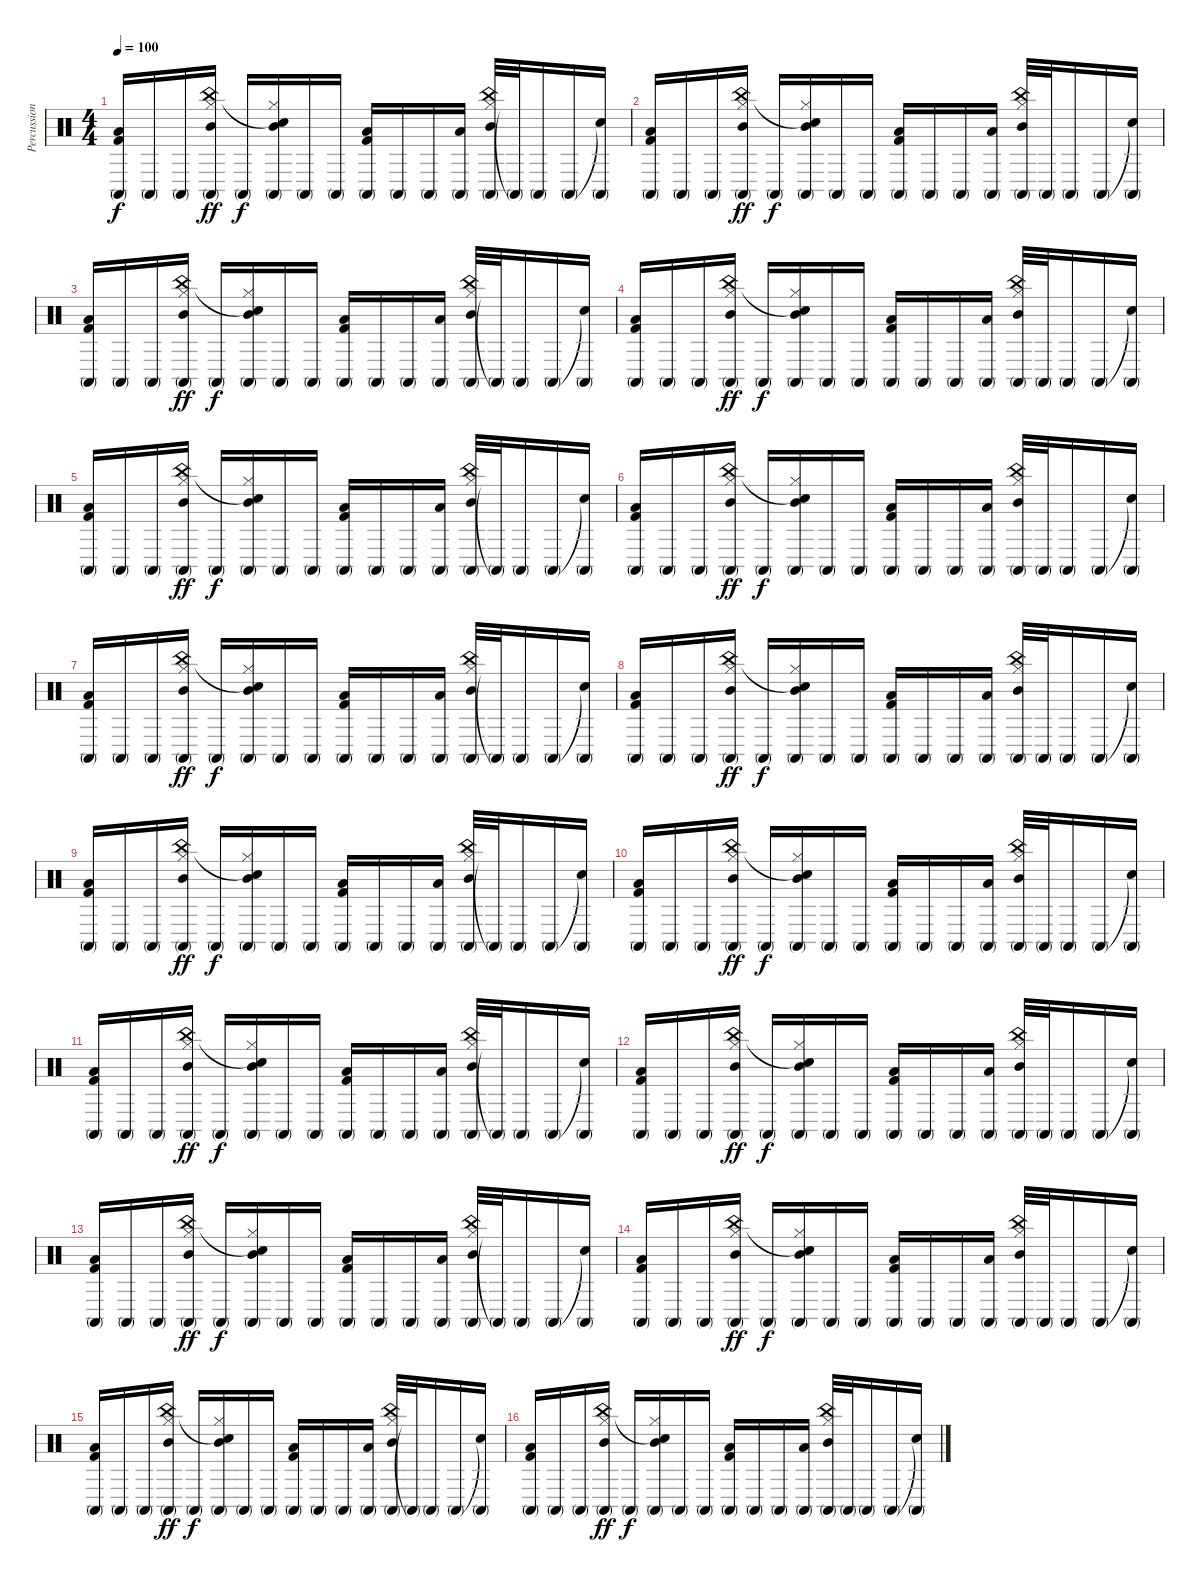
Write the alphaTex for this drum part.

\track ("Percussion" "Percussion") {instrument percussion}
\staff {score}
\articulation defaults
\ts (4 4)
\tempo 100
\clef neutral
\ks c
("Kick (hit) 2" "Low Tom (hit)" "Conga high (mute)").16{dy f} "Conga high (mute)".16 "Conga high (mute)".16 ("Hi-Hat (closed)" "China (hit)" "Mid Tom (hit)" "Conga high (mute)").16{dy ff} "Conga high (mute)".16{dy f} ("Hi-Hat (closed)" "Snare (hit)"{t} "Mid Tom (hit)" "Conga high (mute)").16 "Conga high (mute)".16 "Conga high (mute)".16 ("Kick (hit) 2" "Low Tom (hit)" "Conga high (mute)").16 "Conga high (mute)".16 "Conga high (mute)".16 ("Low Tom (hit)" "Conga high (mute)").16 ("Hi-Hat (closed)" "China (hit)" "Mid Tom (hit)" "Conga high (mute)").32 "Conga high (mute)"{t}.32 "Conga high (mute)".16 "Conga high (mute)".16 ("Snare (hit)"{t} "Conga high (mute)").16 |
("Kick (hit) 2" "Low Tom (hit)" "Conga high (mute)").16 "Conga high (mute)".16 "Conga high (mute)".16 ("Hi-Hat (closed)" "China (hit)" "Mid Tom (hit)" "Conga high (mute)").16{dy ff} "Conga high (mute)".16{dy f} ("Hi-Hat (closed)" "Snare (hit)"{t} "Mid Tom (hit)" "Conga high (mute)").16 "Conga high (mute)".16 "Conga high (mute)".16 ("Kick (hit) 2" "Low Tom (hit)" "Conga high (mute)").16 "Conga high (mute)".16 "Conga high (mute)".16 ("Low Tom (hit)" "Conga high (mute)").16 ("Hi-Hat (closed)" "China (hit)" "Mid Tom (hit)" "Conga high (mute)").32 "Conga high (mute)".32 "Conga high (mute)".16 "Conga high (mute)".16 ("Snare (hit)"{t} "Conga high (mute)").16 |
("Kick (hit) 2" "Low Tom (hit)" "Conga high (mute)").16 "Conga high (mute)".16 "Conga high (mute)".16 ("Hi-Hat (closed)" "China (hit)" "Mid Tom (hit)" "Conga high (mute)").16{dy ff} "Conga high (mute)".16{dy f} ("Hi-Hat (closed)" "Snare (hit)"{t} "Mid Tom (hit)" "Conga high (mute)").16 "Conga high (mute)".16 "Conga high (mute)".16 ("Kick (hit) 2" "Low Tom (hit)" "Conga high (mute)").16 "Conga high (mute)".16 "Conga high (mute)".16 ("Low Tom (hit)" "Conga high (mute)").16 ("Hi-Hat (closed)" "China (hit)" "Mid Tom (hit)" "Conga high (mute)").32 "Conga high (mute)"{t}.32 "Conga high (mute)".16 "Conga high (mute)".16 ("Snare (hit)"{t} "Conga high (mute)").16 |
("Kick (hit) 2" "Low Tom (hit)" "Conga high (mute)").16 "Conga high (mute)".16 "Conga high (mute)".16 ("Hi-Hat (closed)" "China (hit)" "Mid Tom (hit)" "Conga high (mute)").16{dy ff} "Conga high (mute)".16{dy f} ("Hi-Hat (closed)" "Snare (hit)"{t} "Mid Tom (hit)" "Conga high (mute)").16 "Conga high (mute)".16 "Conga high (mute)".16 ("Kick (hit) 2" "Low Tom (hit)" "Conga high (mute)").16 "Conga high (mute)".16 "Conga high (mute)".16 ("Low Tom (hit)" "Conga high (mute)").16 ("Hi-Hat (closed)" "China (hit)" "Mid Tom (hit)" "Conga high (mute)").32 "Conga high (mute)".32 "Conga high (mute)".16 "Conga high (mute)".16 ("Snare (hit)"{t} "Conga high (mute)").16 |
("Kick (hit) 2" "Low Tom (hit)" "Conga high (mute)").16 "Conga high (mute)".16 "Conga high (mute)".16 ("Hi-Hat (closed)" "China (hit)" "Mid Tom (hit)" "Conga high (mute)").16{dy ff} "Conga high (mute)".16{dy f} ("Hi-Hat (closed)" "Snare (hit)"{t} "Mid Tom (hit)" "Conga high (mute)").16 "Conga high (mute)".16 "Conga high (mute)".16 ("Kick (hit) 2" "Low Tom (hit)" "Conga high (mute)").16 "Conga high (mute)".16 "Conga high (mute)".16 ("Low Tom (hit)" "Conga high (mute)").16 ("Hi-Hat (closed)" "China (hit)" "Mid Tom (hit)" "Conga high (mute)").32 "Conga high (mute)"{t}.32 "Conga high (mute)".16 "Conga high (mute)".16 ("Snare (hit)"{t} "Conga high (mute)").16 |
("Kick (hit) 2" "Low Tom (hit)" "Conga high (mute)").16 "Conga high (mute)".16 "Conga high (mute)".16 ("Hi-Hat (closed)" "China (hit)" "Mid Tom (hit)" "Conga high (mute)").16{dy ff} "Conga high (mute)".16{dy f} ("Hi-Hat (closed)" "Snare (hit)"{t} "Mid Tom (hit)" "Conga high (mute)").16 "Conga high (mute)".16 "Conga high (mute)".16 ("Kick (hit) 2" "Low Tom (hit)" "Conga high (mute)").16 "Conga high (mute)".16 "Conga high (mute)".16 ("Low Tom (hit)" "Conga high (mute)").16 ("Hi-Hat (closed)" "China (hit)" "Mid Tom (hit)" "Conga high (mute)").32 "Conga high (mute)".32 "Conga high (mute)".16 "Conga high (mute)".16 ("Snare (hit)"{t} "Conga high (mute)").16 |
("Kick (hit) 2" "Low Tom (hit)" "Conga high (mute)").16 "Conga high (mute)".16 "Conga high (mute)".16 ("Hi-Hat (closed)" "China (hit)" "Mid Tom (hit)" "Conga high (mute)").16{dy ff} "Conga high (mute)".16{dy f} ("Hi-Hat (closed)" "Snare (hit)"{t} "Mid Tom (hit)" "Conga high (mute)").16 "Conga high (mute)".16 "Conga high (mute)".16 ("Kick (hit) 2" "Low Tom (hit)" "Conga high (mute)").16 "Conga high (mute)".16 "Conga high (mute)".16 ("Low Tom (hit)" "Conga high (mute)").16 ("Hi-Hat (closed)" "China (hit)" "Mid Tom (hit)" "Conga high (mute)").32 "Conga high (mute)"{t}.32 "Conga high (mute)".16 "Conga high (mute)".16 ("Snare (hit)"{t} "Conga high (mute)").16 |
("Kick (hit) 2" "Low Tom (hit)" "Conga high (mute)").16 "Conga high (mute)".16 "Conga high (mute)".16 ("Hi-Hat (closed)" "China (hit)" "Mid Tom (hit)" "Conga high (mute)").16{dy ff} "Conga high (mute)".16{dy f} ("Hi-Hat (closed)" "Snare (hit)"{t} "Mid Tom (hit)" "Conga high (mute)").16 "Conga high (mute)".16 "Conga high (mute)".16 ("Kick (hit) 2" "Low Tom (hit)" "Conga high (mute)").16 "Conga high (mute)".16 "Conga high (mute)".16 ("Low Tom (hit)" "Conga high (mute)").16 ("Hi-Hat (closed)" "China (hit)" "Mid Tom (hit)" "Conga high (mute)").32 "Conga high (mute)".32 "Conga high (mute)".16 "Conga high (mute)".16 ("Snare (hit)"{t} "Conga high (mute)").16 |
("Kick (hit) 2" "Low Tom (hit)" "Conga high (mute)").16 "Conga high (mute)".16 "Conga high (mute)".16 ("Hi-Hat (closed)" "China (hit)" "Mid Tom (hit)" "Conga high (mute)").16{dy ff} "Conga high (mute)".16{dy f} ("Hi-Hat (closed)" "Snare (hit)"{t} "Mid Tom (hit)" "Conga high (mute)").16 "Conga high (mute)".16 "Conga high (mute)".16 ("Kick (hit) 2" "Low Tom (hit)" "Conga high (mute)").16 "Conga high (mute)".16 "Conga high (mute)".16 ("Low Tom (hit)" "Conga high (mute)").16 ("Hi-Hat (closed)" "China (hit)" "Mid Tom (hit)" "Conga high (mute)").32 "Conga high (mute)"{t}.32 "Conga high (mute)".16 "Conga high (mute)".16 ("Snare (hit)"{t} "Conga high (mute)").16 |
("Kick (hit) 2" "Low Tom (hit)" "Conga high (mute)").16 "Conga high (mute)".16 "Conga high (mute)".16 ("Hi-Hat (closed)" "China (hit)" "Mid Tom (hit)" "Conga high (mute)").16{dy ff} "Conga high (mute)".16{dy f} ("Hi-Hat (closed)" "Snare (hit)"{t} "Mid Tom (hit)" "Conga high (mute)").16 "Conga high (mute)".16 "Conga high (mute)".16 ("Kick (hit) 2" "Low Tom (hit)" "Conga high (mute)").16 "Conga high (mute)".16 "Conga high (mute)".16 ("Low Tom (hit)" "Conga high (mute)").16 ("Hi-Hat (closed)" "China (hit)" "Mid Tom (hit)" "Conga high (mute)").32 "Conga high (mute)".32 "Conga high (mute)".16 "Conga high (mute)".16 ("Snare (hit)"{t} "Conga high (mute)").16 |
("Kick (hit) 2" "Low Tom (hit)" "Conga high (mute)").16 "Conga high (mute)".16 "Conga high (mute)".16 ("Hi-Hat (closed)" "China (hit)" "Mid Tom (hit)" "Conga high (mute)").16{dy ff} "Conga high (mute)".16{dy f} ("Hi-Hat (closed)" "Snare (hit)"{t} "Mid Tom (hit)" "Conga high (mute)").16 "Conga high (mute)".16 "Conga high (mute)".16 ("Kick (hit) 2" "Low Tom (hit)" "Conga high (mute)").16 "Conga high (mute)".16 "Conga high (mute)".16 ("Low Tom (hit)" "Conga high (mute)").16 ("Hi-Hat (closed)" "China (hit)" "Mid Tom (hit)" "Conga high (mute)").32 "Conga high (mute)"{t}.32 "Conga high (mute)".16 "Conga high (mute)".16 ("Snare (hit)"{t} "Conga high (mute)").16 |
("Kick (hit) 2" "Low Tom (hit)" "Conga high (mute)").16 "Conga high (mute)".16 "Conga high (mute)".16 ("Hi-Hat (closed)" "China (hit)" "Mid Tom (hit)" "Conga high (mute)").16{dy ff} "Conga high (mute)".16{dy f} ("Hi-Hat (closed)" "Snare (hit)"{t} "Mid Tom (hit)" "Conga high (mute)").16 "Conga high (mute)".16 "Conga high (mute)".16 ("Kick (hit) 2" "Low Tom (hit)" "Conga high (mute)").16 "Conga high (mute)".16 "Conga high (mute)".16 ("Low Tom (hit)" "Conga high (mute)").16 ("Hi-Hat (closed)" "China (hit)" "Mid Tom (hit)" "Conga high (mute)").32 "Conga high (mute)".32 "Conga high (mute)".16 "Conga high (mute)".16 ("Snare (hit)"{t} "Conga high (mute)").16 |
("Kick (hit) 2" "Low Tom (hit)" "Conga high (mute)").16 "Conga high (mute)".16 "Conga high (mute)".16 ("Hi-Hat (closed)" "China (hit)" "Mid Tom (hit)" "Conga high (mute)").16{dy ff} "Conga high (mute)".16{dy f} ("Hi-Hat (closed)" "Snare (hit)"{t} "Mid Tom (hit)" "Conga high (mute)").16 "Conga high (mute)".16 "Conga high (mute)".16 ("Kick (hit) 2" "Low Tom (hit)" "Conga high (mute)").16 "Conga high (mute)".16 "Conga high (mute)".16 ("Low Tom (hit)" "Conga high (mute)").16 ("Hi-Hat (closed)" "China (hit)" "Mid Tom (hit)" "Conga high (mute)").32 "Conga high (mute)"{t}.32 "Conga high (mute)".16 "Conga high (mute)".16 ("Snare (hit)"{t} "Conga high (mute)").16 |
("Kick (hit) 2" "Low Tom (hit)" "Conga high (mute)").16 "Conga high (mute)".16 "Conga high (mute)".16 ("Hi-Hat (closed)" "China (hit)" "Mid Tom (hit)" "Conga high (mute)").16{dy ff} "Conga high (mute)".16{dy f} ("Hi-Hat (closed)" "Snare (hit)"{t} "Mid Tom (hit)" "Conga high (mute)").16 "Conga high (mute)".16 "Conga high (mute)".16 ("Kick (hit) 2" "Low Tom (hit)" "Conga high (mute)").16 "Conga high (mute)".16 "Conga high (mute)".16 ("Low Tom (hit)" "Conga high (mute)").16 ("Hi-Hat (closed)" "China (hit)" "Mid Tom (hit)" "Conga high (mute)").32 "Conga high (mute)".32 "Conga high (mute)".16 "Conga high (mute)".16 ("Snare (hit)"{t} "Conga high (mute)").16 |
("Kick (hit) 2" "Low Tom (hit)" "Conga high (mute)").16 "Conga high (mute)".16 "Conga high (mute)".16 ("Hi-Hat (closed)" "China (hit)" "Mid Tom (hit)" "Conga high (mute)").16{dy ff} "Conga high (mute)".16{dy f} ("Hi-Hat (closed)" "Snare (hit)"{t} "Mid Tom (hit)" "Conga high (mute)").16 "Conga high (mute)".16 "Conga high (mute)".16 ("Kick (hit) 2" "Low Tom (hit)" "Conga high (mute)").16 "Conga high (mute)".16 "Conga high (mute)".16 ("Low Tom (hit)" "Conga high (mute)").16 ("Hi-Hat (closed)" "China (hit)" "Mid Tom (hit)" "Conga high (mute)").32 "Conga high (mute)"{t}.32 "Conga high (mute)".16 "Conga high (mute)".16 ("Snare (hit)"{t} "Conga high (mute)").16 |
("Kick (hit) 2" "Low Tom (hit)" "Conga high (mute)").16 "Conga high (mute)".16 "Conga high (mute)".16 ("Hi-Hat (closed)" "China (hit)" "Mid Tom (hit)" "Conga high (mute)").16{dy ff} "Conga high (mute)".16{dy f} ("Hi-Hat (closed)" "Snare (hit)"{t} "Mid Tom (hit)" "Conga high (mute)").16 "Conga high (mute)".16 "Conga high (mute)".16 ("Kick (hit) 2" "Low Tom (hit)" "Conga high (mute)").16 "Conga high (mute)".16 "Conga high (mute)".16 ("Low Tom (hit)" "Conga high (mute)").16 ("Hi-Hat (closed)" "China (hit)" "Mid Tom (hit)" "Conga high (mute)").32 "Conga high (mute)".32 "Conga high (mute)".16 "Conga high (mute)".16 ("Snare (hit)"{t} "Conga high (mute)").16
